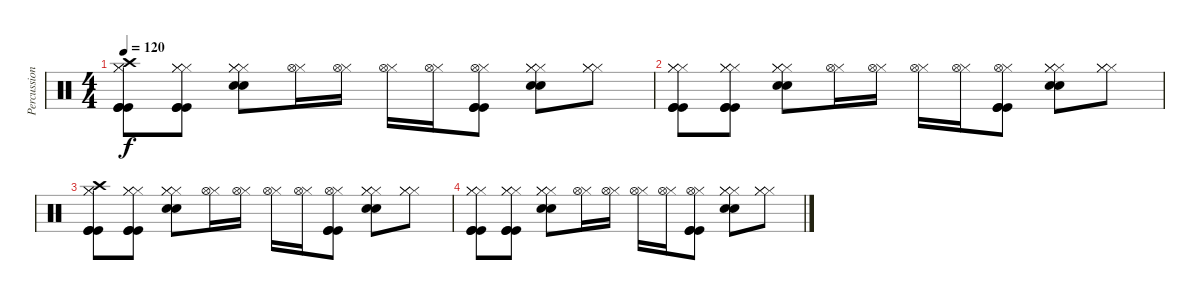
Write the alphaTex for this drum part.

\track ("Percussions" "Percussion") {instrument percussion}
\staff {score}
\articulation defaults
\ts (4 4)
\tempo 120
\clef neutral
\ks c
("Hi-Hat (closed)" "Hi-Hat (closed)" "Crash high (hit)" "Kick (hit)" "Kick (hit)" "Kick (hit)").8{dy f} ("Hi-Hat (closed)" "Hi-Hat (closed)" "Hi-Hat (closed)" "Kick (hit)" "Kick (hit)" "Kick (hit)").8 ("Hi-Hat (closed)" "Hi-Hat (closed)" "Hi-Hat (closed)" "Snare (hit) 2" "Snare (hit) 2").8 ("Hi-Hat (closed)" "Hi-Hat (open)").16 ("Hi-Hat (closed)" "Hi-Hat (open)").16 ("Hi-Hat (closed)" "Hi-Hat (open)").16 ("Hi-Hat (closed)" "Hi-Hat (open)").16 ("Hi-Hat (closed)" "Hi-Hat (open)" "Kick (hit)" "Kick (hit)" "Kick (hit)").8 ("Hi-Hat (closed)" "Hi-Hat (closed)" "Hi-Hat (closed)" "Snare (hit) 2" "Snare (hit) 2").8 ("Hi-Hat (closed)" "Hi-Hat (closed)" "Hi-Hat (closed)").8 |
("Hi-Hat (closed)" "Hi-Hat (closed)" "Hi-Hat (closed)" "Kick (hit)" "Kick (hit)" "Kick (hit)").8 ("Hi-Hat (closed)" "Hi-Hat (closed)" "Hi-Hat (closed)" "Kick (hit)" "Kick (hit)" "Kick (hit)").8 ("Hi-Hat (closed)" "Hi-Hat (closed)" "Hi-Hat (closed)" "Snare (hit) 2" "Snare (hit) 2").8 ("Hi-Hat (closed)" "Hi-Hat (open)").16 ("Hi-Hat (closed)" "Hi-Hat (open)").16 ("Hi-Hat (closed)" "Hi-Hat (open)").16 ("Hi-Hat (closed)" "Hi-Hat (open)").16 ("Hi-Hat (closed)" "Hi-Hat (open)" "Kick (hit)" "Kick (hit)" "Kick (hit)").8 ("Hi-Hat (closed)" "Hi-Hat (closed)" "Hi-Hat (closed)" "Snare (hit) 2" "Snare (hit) 2").8 ("Hi-Hat (closed)" "Hi-Hat (closed)" "Hi-Hat (closed)").8 |
("Hi-Hat (closed)" "Hi-Hat (closed)" "Crash high (hit)" "Kick (hit)" "Kick (hit)" "Kick (hit)").8 ("Hi-Hat (closed)" "Hi-Hat (closed)" "Hi-Hat (closed)" "Kick (hit)" "Kick (hit)" "Kick (hit)").8 ("Hi-Hat (closed)" "Hi-Hat (closed)" "Hi-Hat (closed)" "Snare (hit) 2" "Snare (hit) 2").8 ("Hi-Hat (closed)" "Hi-Hat (open)").16 ("Hi-Hat (closed)" "Hi-Hat (open)").16 ("Hi-Hat (closed)" "Hi-Hat (open)").16 ("Hi-Hat (closed)" "Hi-Hat (open)").16 ("Hi-Hat (closed)" "Hi-Hat (open)" "Kick (hit)" "Kick (hit)" "Kick (hit)").8 ("Hi-Hat (closed)" "Hi-Hat (closed)" "Hi-Hat (closed)" "Snare (hit) 2" "Snare (hit) 2").8 ("Hi-Hat (closed)" "Hi-Hat (closed)" "Hi-Hat (closed)").8 |
("Hi-Hat (closed)" "Hi-Hat (closed)" "Hi-Hat (closed)" "Kick (hit)" "Kick (hit)" "Kick (hit)").8 ("Hi-Hat (closed)" "Hi-Hat (closed)" "Hi-Hat (closed)" "Kick (hit)" "Kick (hit)" "Kick (hit)").8 ("Hi-Hat (closed)" "Hi-Hat (closed)" "Hi-Hat (closed)" "Snare (hit) 2" "Snare (hit) 2").8 ("Hi-Hat (closed)" "Hi-Hat (open)").16 ("Hi-Hat (closed)" "Hi-Hat (open)").16 ("Hi-Hat (closed)" "Hi-Hat (open)").16 ("Hi-Hat (closed)" "Hi-Hat (open)").16 ("Hi-Hat (closed)" "Hi-Hat (open)" "Kick (hit)" "Kick (hit)" "Kick (hit)").8 ("Hi-Hat (closed)" "Hi-Hat (closed)" "Hi-Hat (closed)" "Snare (hit) 2" "Snare (hit) 2").8 ("Hi-Hat (closed)" "Hi-Hat (closed)" "Hi-Hat (closed)").8
